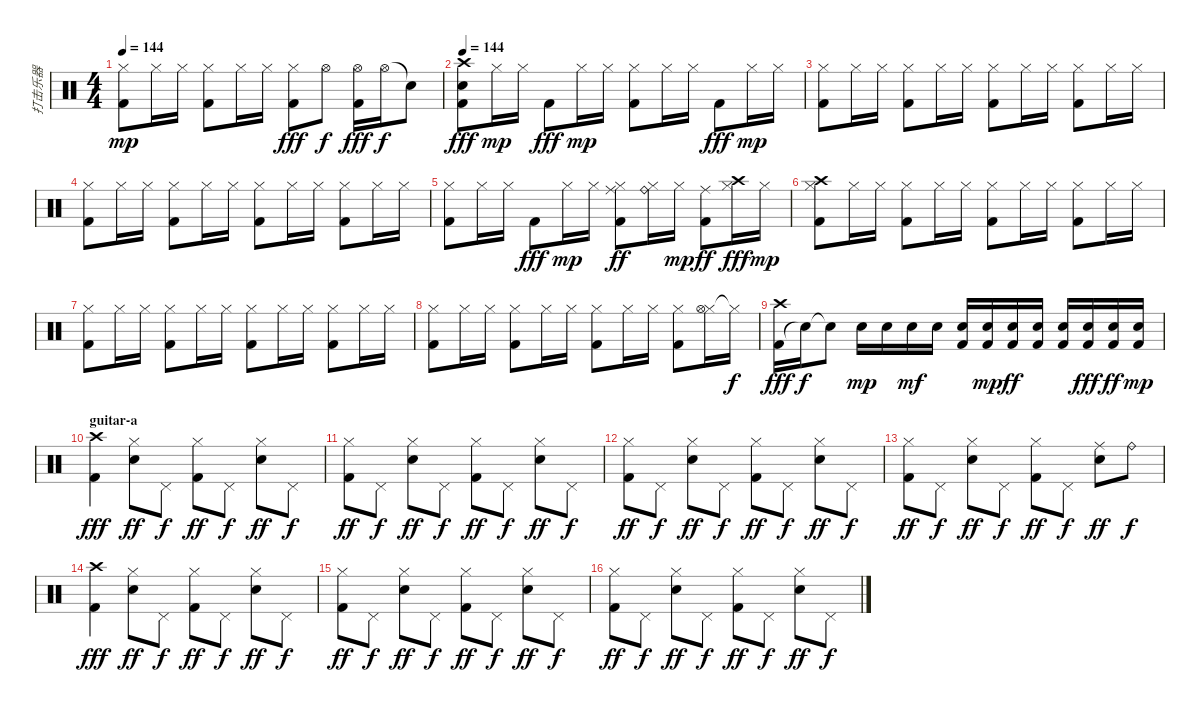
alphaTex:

\track ("打击乐器" "打击乐器") {instrument percussion}
\staff {score}
\articulation defaults
\ts (4 4)
\tempo 144
\clef neutral
\ks c
("Kick (hit) 2" "Hi-Hat (closed)").8{dy mp} "Hi-Hat (closed)".16 "Hi-Hat (closed)".16 ("Kick (hit) 2" "Hi-Hat (closed)").8 "Hi-Hat (closed)".16 "Hi-Hat (closed)".16 ("Kick (hit) 2" "Hi-Hat (closed)").8{dy fff} "Hi-Hat (open)".8{dy f} ("Kick (hit) 2" "Hi-Hat (open)").16{dy fff} "Hi-Hat (open)".16{dy f} "Snare (hit)"{t}.8 |
\tempo 144
("Kick (hit) 2" "Snare (hit) 2" "Crash high (hit)").8{dy fff} "Hi-Hat (closed)".16{dy mp} "Hi-Hat (closed)".16 "Kick (hit) 2".8{dy fff} "Hi-Hat (closed)".16{dy mp} "Hi-Hat (closed)".16 ("Kick (hit) 2" "Hi-Hat (closed)").8 "Hi-Hat (closed)".16 "Hi-Hat (closed)".16 "Kick (hit) 2".8{dy fff} "Hi-Hat (closed)".16{dy mp} "Hi-Hat (closed)".16 |
("Kick (hit) 2" "Hi-Hat (closed)").8 "Hi-Hat (closed)".16 "Hi-Hat (closed)".16 ("Kick (hit) 2" "Hi-Hat (closed)").8 "Hi-Hat (closed)".16 "Hi-Hat (closed)".16 ("Kick (hit) 2" "Hi-Hat (closed)").8 "Hi-Hat (closed)".16 "Hi-Hat (closed)".16 ("Kick (hit) 2" "Hi-Hat (closed)").8 "Hi-Hat (closed)".16 "Hi-Hat (closed)".16 |
("Kick (hit) 2" "Hi-Hat (closed)").8 "Hi-Hat (closed)".16 "Hi-Hat (closed)".16 ("Kick (hit) 2" "Hi-Hat (closed)").8 "Hi-Hat (closed)".16 "Hi-Hat (closed)".16 ("Kick (hit) 2" "Hi-Hat (closed)").8 "Hi-Hat (closed)".16 "Hi-Hat (closed)".16 ("Kick (hit) 2" "Hi-Hat (closed)").8 "Hi-Hat (closed)".16 "Hi-Hat (closed)".16 |
("Kick (hit) 2" "Hi-Hat (closed)").8 "Hi-Hat (closed)".16 "Hi-Hat (closed)".16 "Kick (hit) 2".8{dy fff} "Hi-Hat (closed)".16{dy mp} "Hi-Hat (closed)".16 ("Kick (hit) 2" "Hi-Hat (closed)" "Ride (middle)").8{dy ff} ("Hi-Hat (closed)" "Ride (bell)").16 "Hi-Hat (closed)".16{dy mp} ("Kick (hit) 2" "Ride (middle)").8{dy ff} ("Hi-Hat (closed)" "Crash high (hit)").16{dy fff} "Hi-Hat (closed)".16{dy mp} |
("Kick (hit) 2" "Hi-Hat (closed)" "Crash high (hit)").8 "Hi-Hat (closed)".16 "Hi-Hat (closed)".16 ("Kick (hit) 2" "Hi-Hat (closed)").8 "Hi-Hat (closed)".16 "Hi-Hat (closed)".16 ("Kick (hit) 2" "Hi-Hat (closed)").8 "Hi-Hat (closed)".16 "Hi-Hat (closed)".16 ("Kick (hit) 2" "Hi-Hat (closed)").8 "Hi-Hat (closed)".16 "Hi-Hat (closed)".16 |
("Kick (hit) 2" "Hi-Hat (closed)").8 "Hi-Hat (closed)".16 "Hi-Hat (closed)".16 ("Kick (hit) 2" "Hi-Hat (closed)").8 "Hi-Hat (closed)".16 "Hi-Hat (closed)".16 ("Kick (hit) 2" "Hi-Hat (closed)").8 "Hi-Hat (closed)".16 "Hi-Hat (closed)".16 ("Kick (hit) 2" "Hi-Hat (closed)").8 "Hi-Hat (closed)".16 "Hi-Hat (closed)".16 |
("Kick (hit) 2" "Hi-Hat (closed)").8 "Hi-Hat (closed)".16 "Hi-Hat (closed)".16 ("Kick (hit) 2" "Hi-Hat (closed)").8 "Hi-Hat (closed)".16 "Hi-Hat (closed)".16 ("Kick (hit) 2" "Hi-Hat (closed)").8 "Hi-Hat (closed)".16 "Hi-Hat (closed)".16 ("Kick (hit) 2" "Hi-Hat (closed)").8 ("Hi-Hat (closed)" "Hi-Hat (open)").16 "Hi-Hat (closed)"{t}.16{dy f} |
("Kick (hit) 2" "Crash high (hit)").16{dy fff} "Snare (hit) 2"{t}.16{dy f} "Snare (hit) 2"{t}.8 "Snare (hit) 2".16{dy mp} "Snare (hit) 2".16 "Snare (hit) 2".16{dy mf} "Snare (hit) 2".16 ("Kick (hit) 2" "Snare (hit) 2").16 ("Kick (hit) 2" "Snare (hit) 2").16{dy mp} ("Kick (hit) 2" "Snare (hit) 2").16{dy ff} ("Kick (hit) 2" "Snare (hit) 2").16 ("Kick (hit) 2" "Snare (hit) 2").16 ("Kick (hit) 2" "Snare (hit) 2").16{dy fff} ("Kick (hit) 2" "Snare (hit) 2").16{dy ff} ("Kick (hit) 2" "Snare (hit) 2").16{dy mp} |
\section ("" "guitar-a")
("Kick (hit) 2" "Crash high (hit)").4{dy fff} ("Snare (hit) 2" "Hi-Hat (closed)").8{dy ff} "Pedal Hi-Hat (hit)".8{dy f} ("Kick (hit) 2" "Hi-Hat (closed)").8{dy ff} "Pedal Hi-Hat (hit)".8{dy f} ("Snare (hit) 2" "Hi-Hat (closed)").8{dy ff} "Pedal Hi-Hat (hit)".8{dy f} |
("Kick (hit) 2" "Hi-Hat (closed)").8{dy ff} "Pedal Hi-Hat (hit)".8{dy f} ("Snare (hit) 2" "Hi-Hat (closed)").8{dy ff} "Pedal Hi-Hat (hit)".8{dy f} ("Kick (hit) 2" "Hi-Hat (closed)").8{dy ff} "Pedal Hi-Hat (hit)".8{dy f} ("Snare (hit) 2" "Hi-Hat (closed)").8{dy ff} "Pedal Hi-Hat (hit)".8{dy f} |
("Kick (hit) 2" "Hi-Hat (closed)").8{dy ff} "Pedal Hi-Hat (hit)".8{dy f} ("Snare (hit) 2" "Hi-Hat (closed)").8{dy ff} "Pedal Hi-Hat (hit)".8{dy f} ("Kick (hit) 2" "Hi-Hat (closed)").8{dy ff} "Pedal Hi-Hat (hit)".8{dy f} ("Snare (hit) 2" "Hi-Hat (closed)").8{dy ff} "Pedal Hi-Hat (hit)".8{dy f} |
("Kick (hit) 2" "Hi-Hat (closed)").8{dy ff} "Pedal Hi-Hat (hit)".8{dy f} ("Snare (hit) 2" "Hi-Hat (closed)").8{dy ff} "Pedal Hi-Hat (hit)".8{dy f} ("Kick (hit) 2" "Hi-Hat (closed)").8{dy ff} "Pedal Hi-Hat (hit)".8{dy f} ("Snare (hit) 2" "Ride (middle)").8{dy ff} "Ride (bell)".8{dy f} |
("Kick (hit) 2" "Crash high (hit)").4{dy fff} ("Snare (hit) 2" "Hi-Hat (closed)").8{dy ff} "Pedal Hi-Hat (hit)".8{dy f} ("Kick (hit) 2" "Hi-Hat (closed)").8{dy ff} "Pedal Hi-Hat (hit)".8{dy f} ("Snare (hit) 2" "Hi-Hat (closed)").8{dy ff} "Pedal Hi-Hat (hit)".8{dy f} |
("Kick (hit) 2" "Hi-Hat (closed)").8{dy ff} "Pedal Hi-Hat (hit)".8{dy f} ("Snare (hit) 2" "Hi-Hat (closed)").8{dy ff} "Pedal Hi-Hat (hit)".8{dy f} ("Kick (hit) 2" "Hi-Hat (closed)").8{dy ff} "Pedal Hi-Hat (hit)".8{dy f} ("Snare (hit) 2" "Hi-Hat (closed)").8{dy ff} "Pedal Hi-Hat (hit)".8{dy f} |
("Kick (hit) 2" "Hi-Hat (closed)").8{dy ff} "Pedal Hi-Hat (hit)".8{dy f} ("Snare (hit) 2" "Hi-Hat (closed)").8{dy ff} "Pedal Hi-Hat (hit)".8{dy f} ("Kick (hit) 2" "Hi-Hat (closed)").8{dy ff} "Pedal Hi-Hat (hit)".8{dy f} ("Snare (hit) 2" "Hi-Hat (closed)").8{dy ff} "Pedal Hi-Hat (hit)".8{dy f}
